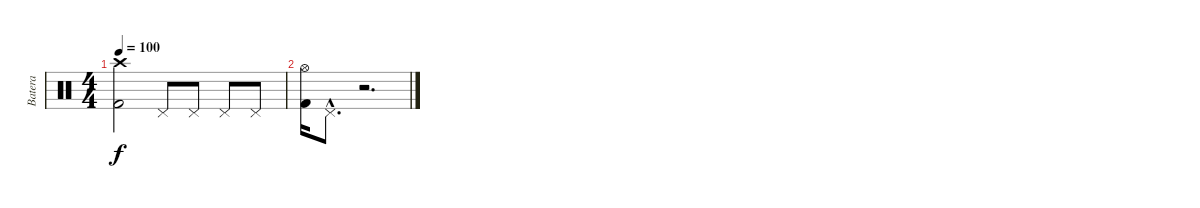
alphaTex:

\track ("Batera" "Batera") {instrument percussion}
\staff {score}
\articulation defaults
\ts (4 4)
\tempo 100
\clef neutral
\ks c
("Crash high (hit)" "Kick (hit) 2").2{dy f} "Pedal Hi-Hat (hit)".8 "Pedal Hi-Hat (hit)".8 "Pedal Hi-Hat (hit)".8 "Pedal Hi-Hat (hit)".8 |
("Hi-Hat (open)" "Kick (hit) 2").16 "Pedal Hi-Hat (hit)"{hac}.8{d} r.2{d}
